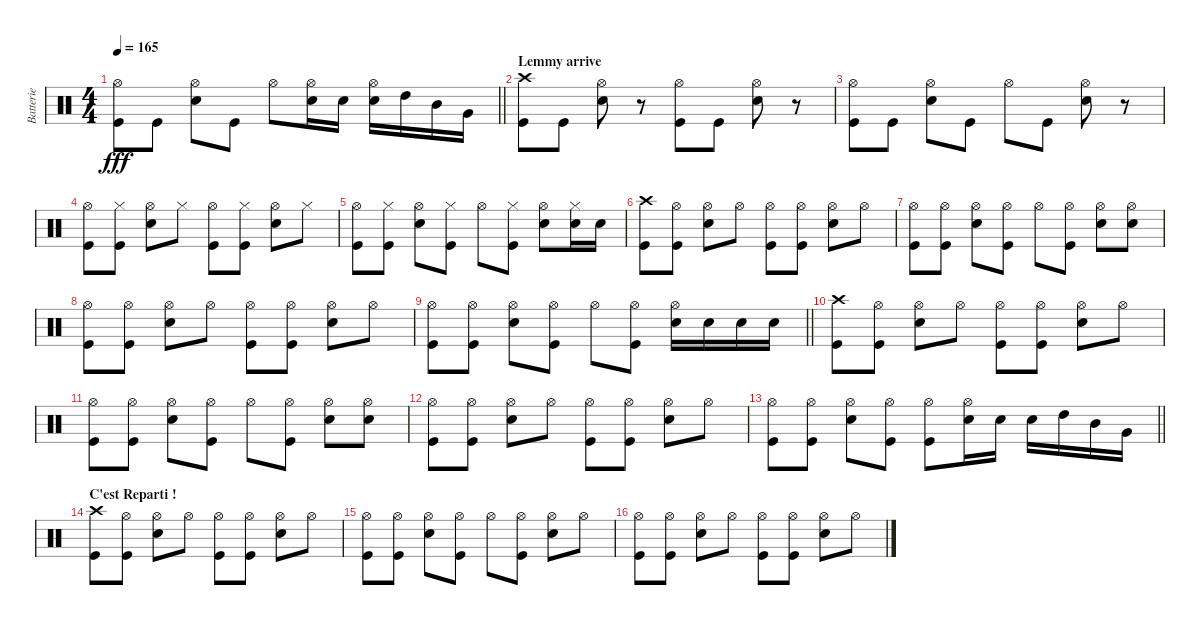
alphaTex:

\track ("Batterie" "Batterie") {instrument percussion}
\staff {score}
\articulation defaults
\ts (4 4)
\tempo 165
\clef neutral
\barLineRight lightlight
\ks c
("Hi-Hat (open)" "Kick (hit)").8{dy fff} "Kick (hit)".8 ("Hi-Hat (open)" "Electric Snare (hit)").8 "Kick (hit)".8 "Hi-Hat (open)".8 ("Hi-Hat (open)" "Electric Snare (hit)").16 "Electric Snare (hit)".16 ("Hi-Hat (open)" "Electric Snare (hit)").16 "High Tom (hit)".16 "Mid Tom (hit)".16 "Very Low Tom (hit)".16 |
\section ("" "Lemmy arrive")
("Crash high (hit)" "Kick (hit)").8 "Kick (hit)".8 ("Hi-Hat (open)" "Electric Snare (hit)").8 r.8 ("Hi-Hat (open)" "Kick (hit)").8 "Kick (hit)".8 ("Hi-Hat (open)" "Electric Snare (hit)").8 r.8 |
("Hi-Hat (open)" "Kick (hit)").8 "Kick (hit)".8 ("Hi-Hat (open)" "Electric Snare (hit)").8 "Kick (hit)".8 "Hi-Hat (open)".8 "Kick (hit)".8 ("Hi-Hat (open)" "Electric Snare (hit)").8 r.8 |
("Hi-Hat (open)" "Kick (hit)").8 ("Hi-Hat (closed)" "Kick (hit)").8 ("Hi-Hat (open)" "Electric Snare (hit)").8 "Hi-Hat (closed)".8 ("Hi-Hat (open)" "Kick (hit)").8 ("Hi-Hat (closed)" "Kick (hit)").8 ("Hi-Hat (open)" "Electric Snare (hit)").8 "Hi-Hat (closed)".8 |
("Hi-Hat (open)" "Kick (hit)").8 ("Hi-Hat (closed)" "Kick (hit)").8 ("Hi-Hat (open)" "Electric Snare (hit)").8 ("Hi-Hat (closed)" "Kick (hit)").8 "Hi-Hat (open)".8 ("Hi-Hat (closed)" "Kick (hit)").8 ("Hi-Hat (open)" "Electric Snare (hit)").8 ("Hi-Hat (closed)" "Electric Snare (hit)").16 "Electric Snare (hit)".16 |
("Crash high (hit)" "Kick (hit)").8 ("Hi-Hat (open)" "Kick (hit)").8 ("Hi-Hat (open)" "Electric Snare (hit)").8 "Hi-Hat (open)".8 ("Hi-Hat (open)" "Kick (hit)").8 ("Hi-Hat (open)" "Kick (hit)").8 ("Hi-Hat (open)" "Electric Snare (hit)").8 "Hi-Hat (open)".8 |
("Hi-Hat (open)" "Kick (hit)").8 ("Hi-Hat (open)" "Kick (hit)").8 ("Hi-Hat (open)" "Electric Snare (hit)").8 ("Hi-Hat (open)" "Kick (hit)").8 "Hi-Hat (open)".8 ("Hi-Hat (open)" "Kick (hit)").8 ("Hi-Hat (open)" "Electric Snare (hit)").8 ("Hi-Hat (open)" "Electric Snare (hit)").8 |
("Hi-Hat (open)" "Kick (hit)").8 ("Hi-Hat (open)" "Kick (hit)").8 ("Hi-Hat (open)" "Electric Snare (hit)").8 "Hi-Hat (open)".8 ("Hi-Hat (open)" "Kick (hit)").8 ("Hi-Hat (open)" "Kick (hit)").8 ("Hi-Hat (open)" "Electric Snare (hit)").8 "Hi-Hat (open)".8 |
\barLineRight lightlight
("Hi-Hat (open)" "Kick (hit)").8 ("Hi-Hat (open)" "Kick (hit)").8 ("Hi-Hat (open)" "Electric Snare (hit)").8 ("Hi-Hat (open)" "Kick (hit)").8 "Hi-Hat (open)".8 ("Hi-Hat (open)" "Kick (hit)").8 ("Hi-Hat (open)" "Electric Snare (hit)").16 "Electric Snare (hit)".16 "Electric Snare (hit)".16 "Electric Snare (hit)".16 |
("Crash high (hit)" "Kick (hit)").8 ("Hi-Hat (open)" "Kick (hit)").8 ("Hi-Hat (open)" "Electric Snare (hit)").8 "Hi-Hat (open)".8 ("Hi-Hat (open)" "Kick (hit)").8 ("Hi-Hat (open)" "Kick (hit)").8 ("Hi-Hat (open)" "Electric Snare (hit)").8 "Hi-Hat (open)".8 |
("Hi-Hat (open)" "Kick (hit)").8 ("Hi-Hat (open)" "Kick (hit)").8 ("Hi-Hat (open)" "Electric Snare (hit)").8 ("Hi-Hat (open)" "Kick (hit)").8 "Hi-Hat (open)".8 ("Hi-Hat (open)" "Kick (hit)").8 ("Hi-Hat (open)" "Electric Snare (hit)").8 ("Hi-Hat (open)" "Electric Snare (hit)").8 |
("Hi-Hat (open)" "Kick (hit)").8 ("Hi-Hat (open)" "Kick (hit)").8 ("Hi-Hat (open)" "Electric Snare (hit)").8 "Hi-Hat (open)".8 ("Hi-Hat (open)" "Kick (hit)").8 ("Hi-Hat (open)" "Kick (hit)").8 ("Hi-Hat (open)" "Electric Snare (hit)").8 "Hi-Hat (open)".8 |
\barLineRight lightlight
("Hi-Hat (open)" "Kick (hit)").8 ("Hi-Hat (open)" "Kick (hit)").8 ("Hi-Hat (open)" "Electric Snare (hit)").8 ("Hi-Hat (open)" "Kick (hit)").8 ("Hi-Hat (open)" "Kick (hit)").8 ("Hi-Hat (open)" "Electric Snare (hit)").16 "Electric Snare (hit)".16 "Electric Snare (hit)".16 "High Tom (hit)".16 "Mid Tom (hit)".16 "Very Low Tom (hit)".16 |
\section ("" "C'est Reparti !")
("Crash high (hit)" "Kick (hit)").8 ("Hi-Hat (open)" "Kick (hit)").8 ("Hi-Hat (open)" "Electric Snare (hit)").8 "Hi-Hat (open)".8 ("Hi-Hat (open)" "Kick (hit)").8 ("Hi-Hat (open)" "Kick (hit)").8 ("Hi-Hat (open)" "Electric Snare (hit)").8 "Hi-Hat (open)".8 |
("Hi-Hat (open)" "Kick (hit)").8 ("Hi-Hat (open)" "Kick (hit)").8 ("Hi-Hat (open)" "Electric Snare (hit)").8 ("Hi-Hat (open)" "Kick (hit)").8 "Hi-Hat (open)".8 ("Hi-Hat (open)" "Kick (hit)").8 ("Hi-Hat (open)" "Electric Snare (hit)").8 "Hi-Hat (open)".8 |
("Hi-Hat (open)" "Kick (hit)").8 ("Hi-Hat (open)" "Kick (hit)").8 ("Hi-Hat (open)" "Electric Snare (hit)").8 "Hi-Hat (open)".8 ("Hi-Hat (open)" "Kick (hit)").8 ("Hi-Hat (open)" "Kick (hit)").8 ("Hi-Hat (open)" "Electric Snare (hit)").8 "Hi-Hat (open)".8
